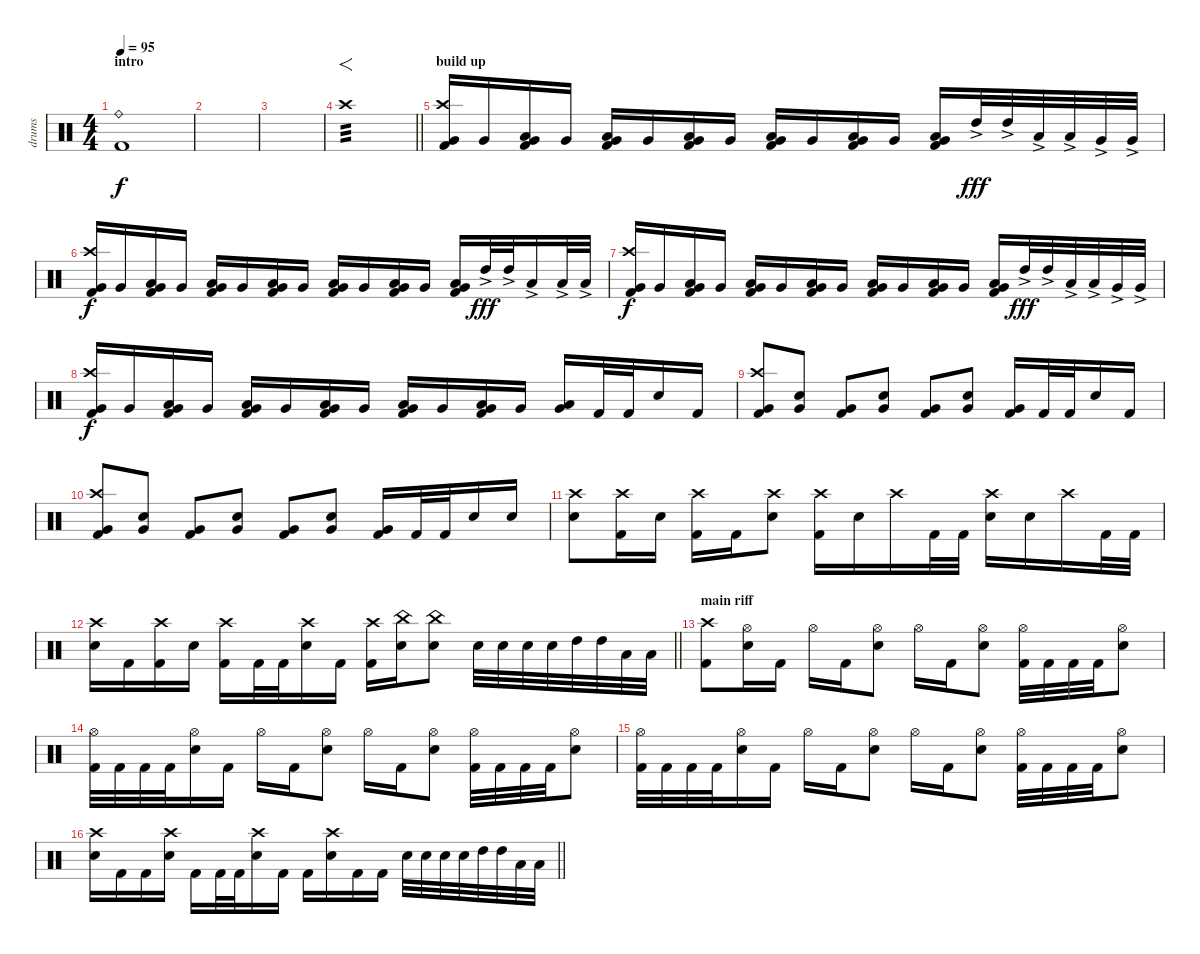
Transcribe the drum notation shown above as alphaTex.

\track ("drums" "drums") {instrument percussion}
\staff {score}
\articulation defaults
\ts (4 4)
\section ("" "intro")
\tempo 95
\clef neutral
\ks c
("Ride (bell)" "Kick (hit) 2").1{dy f} |
|
|
\barLineRight lightlight "Crash high (hit)".1{f tp 3}
|
\section ("" "build up")
("Crash high (hit)" "Very Low Tom (hit)" "Kick (hit) 2").16 "Very Low Tom (hit)".16 ("Low Tom (hit)" "Very Low Tom (hit)" "Kick (hit) 2").16 "Very Low Tom (hit)".16 ("Low Tom (hit)" "Very Low Tom (hit)" "Kick (hit) 2").16 "Very Low Tom (hit)".16 ("Low Tom (hit)" "Very Low Tom (hit)" "Kick (hit) 2").16 "Very Low Tom (hit)".16 ("Low Tom (hit)" "Very Low Tom (hit)" "Kick (hit) 2").16 "Very Low Tom (hit)".16 ("Low Tom (hit)" "Very Low Tom (hit)" "Kick (hit) 2").16 "Very Low Tom (hit)".16 ("Low Tom (hit)" "Very Low Tom (hit)" "Kick (hit) 2").16 "High Tom (hit)"{ac}.32{dy fff} "High Tom (hit)"{ac}.32 "Low Tom (hit)"{ac}.32 "Low Tom (hit)"{ac}.32 "Very Low Tom (hit)"{ac}.32 "Very Low Tom (hit)"{ac}.32 |
("Crash high (hit)" "Very Low Tom (hit)" "Kick (hit) 2").16{dy f} "Very Low Tom (hit)".16 ("Low Tom (hit)" "Very Low Tom (hit)" "Kick (hit) 2").16 "Very Low Tom (hit)".16 ("Low Tom (hit)" "Very Low Tom (hit)" "Kick (hit) 2").16 "Very Low Tom (hit)".16 ("Low Tom (hit)" "Very Low Tom (hit)" "Kick (hit) 2").16 "Very Low Tom (hit)".16 ("Low Tom (hit)" "Very Low Tom (hit)" "Kick (hit) 2").16 "Very Low Tom (hit)".16 ("Low Tom (hit)" "Very Low Tom (hit)" "Kick (hit) 2").16 "Very Low Tom (hit)".16 ("Low Tom (hit)" "Very Low Tom (hit)" "Kick (hit) 2").16 "High Tom (hit)"{ac}.32{dy fff} "High Tom (hit)"{ac}.32 "Low Tom (hit)"{ac}.16 "Low Tom (hit)"{ac}.32 "Low Tom (hit)"{ac}.32 |
("Crash high (hit)" "Very Low Tom (hit)" "Kick (hit) 2").16{dy f} "Very Low Tom (hit)".16 ("Low Tom (hit)" "Very Low Tom (hit)" "Kick (hit) 2").16 "Very Low Tom (hit)".16 ("Low Tom (hit)" "Very Low Tom (hit)" "Kick (hit) 2").16 "Very Low Tom (hit)".16 ("Low Tom (hit)" "Very Low Tom (hit)" "Kick (hit) 2").16 "Very Low Tom (hit)".16 ("Low Tom (hit)" "Very Low Tom (hit)" "Kick (hit) 2").16 "Very Low Tom (hit)".16 ("Low Tom (hit)" "Very Low Tom (hit)" "Kick (hit) 2").16 "Very Low Tom (hit)".16 ("Low Tom (hit)" "Very Low Tom (hit)" "Kick (hit) 2").16 "High Tom (hit)"{ac}.32{dy fff} "High Tom (hit)"{ac}.32 "Low Tom (hit)"{ac}.32 "Low Tom (hit)"{ac}.32 "Very Low Tom (hit)"{ac}.32 "Very Low Tom (hit)"{ac}.32 |
("Crash high (hit)" "Very Low Tom (hit)" "Kick (hit) 2").16{dy f} "Very Low Tom (hit)".16 ("Low Tom (hit)" "Very Low Tom (hit)" "Kick (hit) 2").16 "Very Low Tom (hit)".16 ("Low Tom (hit)" "Very Low Tom (hit)" "Kick (hit) 2").16 "Very Low Tom (hit)".16 ("Low Tom (hit)" "Very Low Tom (hit)" "Kick (hit) 2").16 "Very Low Tom (hit)".16 ("Low Tom (hit)" "Very Low Tom (hit)" "Kick (hit) 2").16 "Very Low Tom (hit)".16 ("Low Tom (hit)" "Very Low Tom (hit)" "Kick (hit) 2").16 "Very Low Tom (hit)".16 ("Low Tom (hit)" "Very Low Tom (hit)").16 "Kick (hit) 2".32 "Kick (hit) 2".32 "Electric Snare (hit)".16 "Kick (hit) 2".16 |
("Crash high (hit)" "Very Low Tom (hit)" "Kick (hit) 2").8 ("Electric Snare (hit)" "Very Low Tom (hit)").8 ("Very Low Tom (hit)" "Kick (hit) 2").8 ("Electric Snare (hit)" "Very Low Tom (hit)").8 ("Very Low Tom (hit)" "Kick (hit) 2").8 ("Electric Snare (hit)" "Very Low Tom (hit)").8 ("Very Low Tom (hit)" "Kick (hit) 2").16 "Kick (hit) 2".32 "Kick (hit) 2".32 "Electric Snare (hit)".16 "Kick (hit) 2".16 |
("Crash high (hit)" "Very Low Tom (hit)" "Kick (hit) 2").8 ("Electric Snare (hit)" "Very Low Tom (hit)").8 ("Very Low Tom (hit)" "Kick (hit) 2").8 ("Electric Snare (hit)" "Very Low Tom (hit)").8 ("Very Low Tom (hit)" "Kick (hit) 2").8 ("Electric Snare (hit)" "Very Low Tom (hit)").8 ("Very Low Tom (hit)" "Kick (hit) 2").16 "Kick (hit) 2".32 "Kick (hit) 2".32 "Electric Snare (hit)".16 "Electric Snare (hit)".16 |
("Crash high (hit)" "Electric Snare (hit)").8 ("Crash high (hit)" "Kick (hit) 2").16 "Electric Snare (hit)".16 ("Crash high (hit)" "Kick (hit) 2").16 "Kick (hit) 2".16 ("Crash high (hit)" "Electric Snare (hit)").8 ("Crash high (hit)" "Kick (hit) 2").16 "Electric Snare (hit)".16 "Crash high (hit)".16 "Kick (hit) 2".32 "Kick (hit) 2".32 ("Crash high (hit)" "Electric Snare (hit)").16 "Electric Snare (hit)".16 "Crash high (hit)".16 "Kick (hit) 2".32 "Kick (hit) 2".32 |
\barLineRight lightlight
("Crash high (hit)" "Electric Snare (hit)").16 "Kick (hit) 2".16 ("Crash high (hit)" "Kick (hit) 2").16 "Electric Snare (hit)".16 ("Crash high (hit)" "Kick (hit) 2").16 "Kick (hit) 2".32 "Kick (hit) 2".32 ("Crash high (hit)" "Electric Snare (hit)").16 "Kick (hit) 2".16 ("Crash high (hit)" "Kick (hit) 2").16 ("China (hit)" "Electric Snare (hit)").16 ("China (hit)" "Electric Snare (hit)").8 "Electric Snare (hit)".32 "Electric Snare (hit)".32 "Electric Snare (hit)".32 "Electric Snare (hit)".32 "High Tom (hit)".32 "High Tom (hit)".32 "Low Tom (hit)".32 "Low Tom (hit)".32 |
\section ("" "main riff")
("Crash high (hit)" "Kick (hit) 2").8 ("Hi-Hat (open)" "Electric Snare (hit)").16 "Kick (hit) 2".16 "Hi-Hat (open)".16 "Kick (hit) 2".16 ("Hi-Hat (open)" "Electric Snare (hit)").8 "Hi-Hat (open)".16 "Kick (hit) 2".16 ("Hi-Hat (open)" "Electric Snare (hit)").8 ("Hi-Hat (open)" "Kick (hit) 2").32 "Kick (hit) 2".32 "Kick (hit) 2".32 "Kick (hit) 2".32 ("Hi-Hat (open)" "Electric Snare (hit)").8 |
("Hi-Hat (open)" "Kick (hit) 2").32 "Kick (hit) 2".32 "Kick (hit) 2".32 "Kick (hit) 2".32 ("Hi-Hat (open)" "Electric Snare (hit)").16 "Kick (hit) 2".16 "Hi-Hat (open)".16 "Kick (hit) 2".16 ("Hi-Hat (open)" "Electric Snare (hit)").8 "Hi-Hat (open)".16 "Kick (hit) 2".16 ("Hi-Hat (open)" "Electric Snare (hit)").8 ("Hi-Hat (open)" "Kick (hit) 2").32 "Kick (hit) 2".32 "Kick (hit) 2".32 "Kick (hit) 2".32 ("Hi-Hat (open)" "Electric Snare (hit)").8 |
("Hi-Hat (open)" "Kick (hit) 2").32 "Kick (hit) 2".32 "Kick (hit) 2".32 "Kick (hit) 2".32 ("Hi-Hat (open)" "Electric Snare (hit)").16 "Kick (hit) 2".16 "Hi-Hat (open)".16 "Kick (hit) 2".16 ("Hi-Hat (open)" "Electric Snare (hit)").8 "Hi-Hat (open)".16 "Kick (hit) 2".16 ("Hi-Hat (open)" "Electric Snare (hit)").8 ("Hi-Hat (open)" "Kick (hit) 2").32 "Kick (hit) 2".32 "Kick (hit) 2".32 "Kick (hit) 2".32 ("Hi-Hat (open)" "Electric Snare (hit)").8 |
\barLineRight lightlight
("Crash high (hit)" "Electric Snare (hit)").16 "Kick (hit) 2".16 "Kick (hit) 2".16 ("Crash high (hit)" "Electric Snare (hit)").16 "Kick (hit) 2".16 "Kick (hit) 2".32 "Kick (hit) 2".32 ("Crash high (hit)" "Electric Snare (hit)").16 "Kick (hit) 2".16 "Kick (hit) 2".16 ("Crash high (hit)" "Electric Snare (hit)").16 "Kick (hit) 2".16 "Kick (hit) 2".16 "Electric Snare (hit)".32 "Electric Snare (hit)".32 "Electric Snare (hit)".32 "Electric Snare (hit)".32 "High Tom (hit)".32 "High Tom (hit)".32 "Low Tom (hit)".32 "Low Tom (hit)".32
